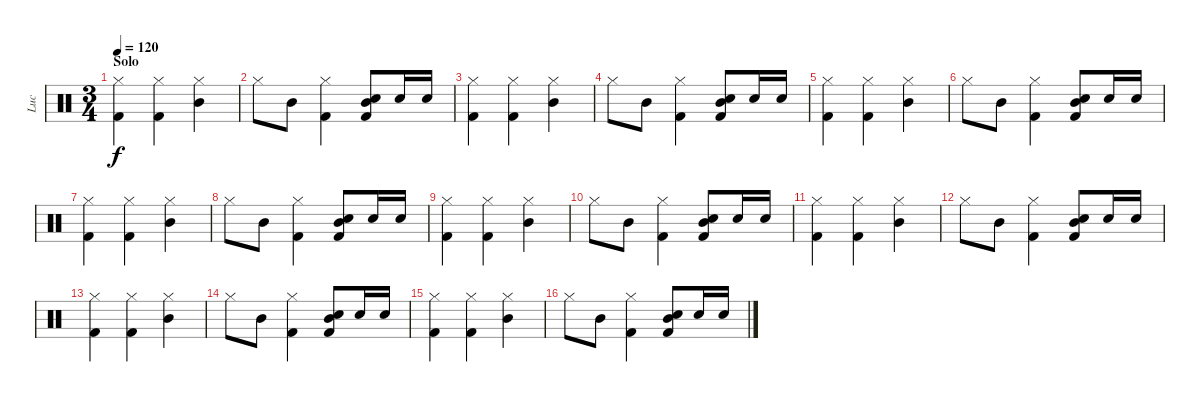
\track ("Luc" "Luc") {instrument percussion}
\staff {score}
\articulation defaults
\ts (3 4)
\section ("" "Solo")
\tempo 120
\clef neutral
\ks c
("Hi-Hat (closed)" "Kick (hit) 2").4{dy f} ("Hi-Hat (closed)" "Kick (hit) 2").4 ("Hi-Hat (closed)" "Mid Tom (hit)").4 |
"Hi-Hat (closed)".8 "Mid Tom (hit)".8 ("Hi-Hat (closed)" "Kick (hit) 2").4 ("Mid Tom (hit)" "Snare (hit) 2" "Kick (hit) 2").8 "Snare (hit) 2".16 "Snare (hit) 2".16 |
("Hi-Hat (closed)" "Kick (hit) 2").4 ("Hi-Hat (closed)" "Kick (hit) 2").4 ("Hi-Hat (closed)" "Mid Tom (hit)").4 |
"Hi-Hat (closed)".8 "Mid Tom (hit)".8 ("Hi-Hat (closed)" "Kick (hit) 2").4 ("Mid Tom (hit)" "Snare (hit) 2" "Kick (hit) 2").8 "Snare (hit) 2".16 "Snare (hit) 2".16 |
("Hi-Hat (closed)" "Kick (hit) 2").4 ("Hi-Hat (closed)" "Kick (hit) 2").4 ("Hi-Hat (closed)" "Mid Tom (hit)").4 |
"Hi-Hat (closed)".8 "Mid Tom (hit)".8 ("Hi-Hat (closed)" "Kick (hit) 2").4 ("Mid Tom (hit)" "Snare (hit) 2" "Kick (hit) 2").8 "Snare (hit) 2".16 "Snare (hit) 2".16 |
("Hi-Hat (closed)" "Kick (hit) 2").4 ("Hi-Hat (closed)" "Kick (hit) 2").4 ("Hi-Hat (closed)" "Mid Tom (hit)").4 |
"Hi-Hat (closed)".8 "Mid Tom (hit)".8 ("Hi-Hat (closed)" "Kick (hit) 2").4 ("Mid Tom (hit)" "Snare (hit) 2" "Kick (hit) 2").8 "Snare (hit) 2".16 "Snare (hit) 2".16 |
("Hi-Hat (closed)" "Kick (hit) 2").4 ("Hi-Hat (closed)" "Kick (hit) 2").4 ("Hi-Hat (closed)" "Mid Tom (hit)").4 |
"Hi-Hat (closed)".8 "Mid Tom (hit)".8 ("Hi-Hat (closed)" "Kick (hit) 2").4 ("Mid Tom (hit)" "Snare (hit) 2" "Kick (hit) 2").8 "Snare (hit) 2".16 "Snare (hit) 2".16 |
("Hi-Hat (closed)" "Kick (hit) 2").4 ("Hi-Hat (closed)" "Kick (hit) 2").4 ("Hi-Hat (closed)" "Mid Tom (hit)").4 |
"Hi-Hat (closed)".8 "Mid Tom (hit)".8 ("Hi-Hat (closed)" "Kick (hit) 2").4 ("Mid Tom (hit)" "Snare (hit) 2" "Kick (hit) 2").8 "Snare (hit) 2".16 "Snare (hit) 2".16 |
("Hi-Hat (closed)" "Kick (hit) 2").4 ("Hi-Hat (closed)" "Kick (hit) 2").4 ("Hi-Hat (closed)" "Mid Tom (hit)").4 |
"Hi-Hat (closed)".8 "Mid Tom (hit)".8 ("Hi-Hat (closed)" "Kick (hit) 2").4 ("Mid Tom (hit)" "Snare (hit) 2" "Kick (hit) 2").8 "Snare (hit) 2".16 "Snare (hit) 2".16 |
("Hi-Hat (closed)" "Kick (hit) 2").4 ("Hi-Hat (closed)" "Kick (hit) 2").4 ("Hi-Hat (closed)" "Mid Tom (hit)").4 |
"Hi-Hat (closed)".8 "Mid Tom (hit)".8 ("Hi-Hat (closed)" "Kick (hit) 2").4 ("Mid Tom (hit)" "Snare (hit) 2" "Kick (hit) 2").8 "Snare (hit) 2".16 "Snare (hit) 2".16
